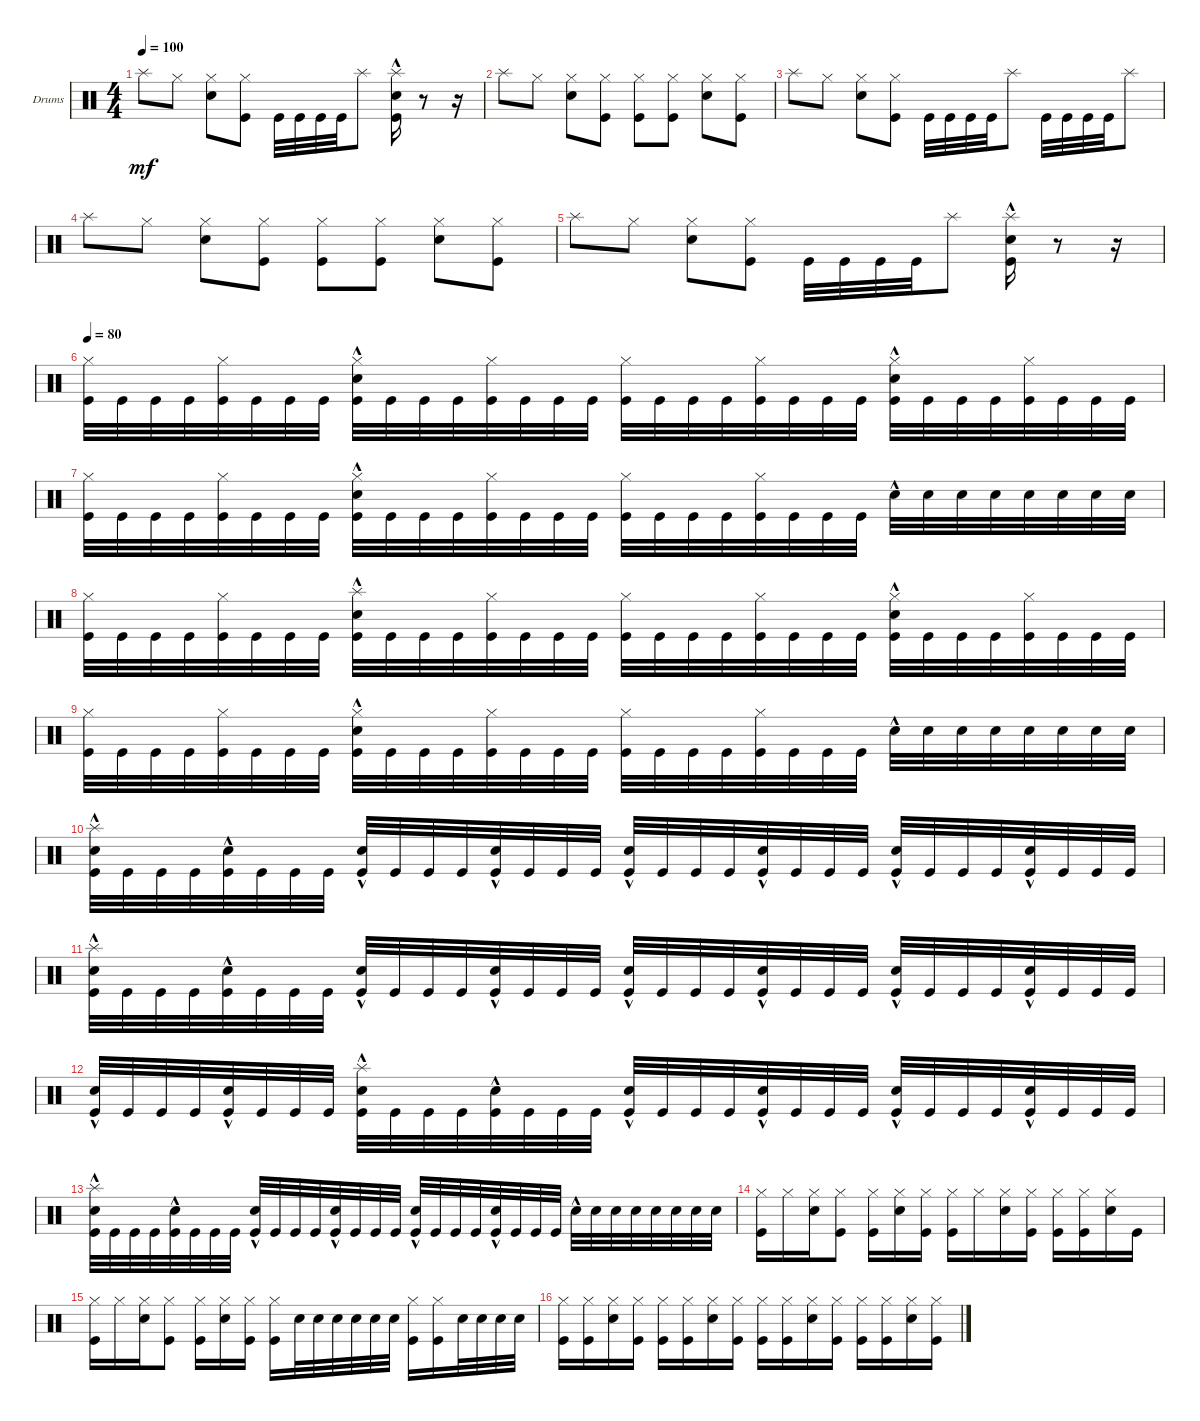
\defaultSystemsLayout 4
\bracketExtendMode groupsimilarinstruments
\firstSystemTrackNameOrientation horizontal
\otherSystemsTrackNameOrientation horizontal
\track ("Drumkit" "Drums") {instrument percussion}
\staff {score}
\articulation defaults
\ts (4 4)
\tempo 100
\clef neutral
\ks c "Splash (hit)".8{dy mf} "Hi-Hat (closed)".8
("Snare (hit) 2" "Hi-Hat (closed)").8 ("Kick (hit)" "Hi-Hat (closed)").8 "Kick (hit)".32 "Kick (hit)".32 "Kick (hit)".32 "Kick (hit)".32 "Splash (hit)".8 ("Splash (hit)"{hac} "Snare (hit) 2"{hac} "Kick (hit)"{hac}).16 r.8 r.16 |
"Splash (hit)".8 "Hi-Hat (closed)".8 ("Snare (hit) 2" "Hi-Hat (closed)").8 ("Kick (hit)" "Hi-Hat (closed)").8 ("Kick (hit)" "Hi-Hat (closed)").8 ("Kick (hit)" "Hi-Hat (closed)").8 ("Snare (hit) 2" "Hi-Hat (closed)").8 ("Kick (hit)" "Hi-Hat (closed)").8 |
"Splash (hit)".8 "Hi-Hat (closed)".8 ("Snare (hit) 2" "Hi-Hat (closed)").8 ("Kick (hit)" "Hi-Hat (closed)").8 "Kick (hit)".32 "Kick (hit)".32 "Kick (hit)".32 "Kick (hit)".32 "Splash (hit)".8 "Kick (hit)".32 "Kick (hit)".32 "Kick (hit)".32 "Kick (hit)".32 "Splash (hit)".8 |
"Splash (hit)".8 "Hi-Hat (closed)".8 ("Snare (hit) 2" "Hi-Hat (closed)").8 ("Kick (hit)" "Hi-Hat (closed)").8 ("Kick (hit)" "Hi-Hat (closed)").8 ("Kick (hit)" "Hi-Hat (closed)").8 ("Snare (hit) 2" "Hi-Hat (closed)").8 ("Kick (hit)" "Hi-Hat (closed)").8 |
"Splash (hit)".8 "Hi-Hat (closed)".8 ("Snare (hit) 2" "Hi-Hat (closed)").8 ("Kick (hit)" "Hi-Hat (closed)").8 "Kick (hit)".32 "Kick (hit)".32 "Kick (hit)".32 "Kick (hit)".32 "Splash (hit)".8 ("Splash (hit)"{hac} "Snare (hit) 2"{hac} "Kick (hit)"{hac}).16 r.8 r.16 |
\tempo 80
("Kick (hit)" "Hi-Hat (closed)").32 "Kick (hit)".32 "Kick (hit)".32 "Kick (hit)".32 ("Kick (hit)" "Hi-Hat (closed)").32 "Kick (hit)".32 "Kick (hit)".32 "Kick (hit)".32 ("Kick (hit)" "Snare (hit) 2"{hac} "Hi-Hat (closed)").32 "Kick (hit)".32 "Kick (hit)".32 "Kick (hit)".32 ("Kick (hit)" "Hi-Hat (closed)").32 "Kick (hit)".32 "Kick (hit)".32 "Kick (hit)".32 ("Kick (hit)" "Hi-Hat (closed)").32 "Kick (hit)".32 "Kick (hit)".32 "Kick (hit)".32 ("Kick (hit)" "Hi-Hat (closed)").32 "Kick (hit)".32 "Kick (hit)".32 "Kick (hit)".32 ("Kick (hit)" "Snare (hit) 2"{hac} "Hi-Hat (closed)").32 "Kick (hit)".32 "Kick (hit)".32 "Kick (hit)".32 ("Kick (hit)" "Hi-Hat (closed)").32 "Kick (hit)".32 "Kick (hit)".32 "Kick (hit)".32 |
("Kick (hit)" "Hi-Hat (closed)").32 "Kick (hit)".32 "Kick (hit)".32 "Kick (hit)".32 ("Kick (hit)" "Hi-Hat (closed)").32 "Kick (hit)".32 "Kick (hit)".32 "Kick (hit)".32 ("Kick (hit)" "Snare (hit) 2"{hac} "Hi-Hat (closed)").32 "Kick (hit)".32 "Kick (hit)".32 "Kick (hit)".32 ("Kick (hit)" "Hi-Hat (closed)").32 "Kick (hit)".32 "Kick (hit)".32 "Kick (hit)".32 ("Kick (hit)" "Hi-Hat (closed)").32 "Kick (hit)".32 "Kick (hit)".32 "Kick (hit)".32 ("Kick (hit)" "Hi-Hat (closed)").32 "Kick (hit)".32 "Kick (hit)".32 "Kick (hit)".32 "Snare (hit) 2"{hac}.32 "Snare (hit) 2".32 "Snare (hit) 2".32 "Snare (hit) 2".32 "Snare (hit) 2".32 "Snare (hit) 2".32 "Snare (hit) 2".32 "Snare (hit) 2".32 |
("Kick (hit)" "Hi-Hat (closed)").32 "Kick (hit)".32 "Kick (hit)".32 "Kick (hit)".32 ("Kick (hit)" "Hi-Hat (closed)").32 "Kick (hit)".32 "Kick (hit)".32 "Kick (hit)".32 ("Kick (hit)" "Snare (hit) 2"{hac} "Splash (hit)").32 "Kick (hit)".32 "Kick (hit)".32 "Kick (hit)".32 ("Kick (hit)" "Hi-Hat (closed)").32 "Kick (hit)".32 "Kick (hit)".32 "Kick (hit)".32 ("Kick (hit)" "Hi-Hat (closed)").32 "Kick (hit)".32 "Kick (hit)".32 "Kick (hit)".32 ("Kick (hit)" "Hi-Hat (closed)").32 "Kick (hit)".32 "Kick (hit)".32 "Kick (hit)".32 ("Kick (hit)" "Snare (hit) 2"{hac} "Hi-Hat (closed)").32 "Kick (hit)".32 "Kick (hit)".32 "Kick (hit)".32 ("Kick (hit)" "Hi-Hat (closed)").32 "Kick (hit)".32 "Kick (hit)".32 "Kick (hit)".32 |
("Kick (hit)" "Hi-Hat (closed)").32 "Kick (hit)".32 "Kick (hit)".32 "Kick (hit)".32 ("Kick (hit)" "Hi-Hat (closed)").32 "Kick (hit)".32 "Kick (hit)".32 "Kick (hit)".32 ("Kick (hit)" "Snare (hit) 2"{hac} "Hi-Hat (closed)").32 "Kick (hit)".32 "Kick (hit)".32 "Kick (hit)".32 ("Kick (hit)" "Hi-Hat (closed)").32 "Kick (hit)".32 "Kick (hit)".32 "Kick (hit)".32 ("Kick (hit)" "Hi-Hat (closed)").32 "Kick (hit)".32 "Kick (hit)".32 "Kick (hit)".32 ("Kick (hit)" "Hi-Hat (closed)").32 "Kick (hit)".32 "Kick (hit)".32 "Kick (hit)".32 "Snare (hit) 2"{hac}.32 "Snare (hit) 2".32 "Snare (hit) 2".32 "Snare (hit) 2".32 "Snare (hit) 2".32 "Snare (hit) 2".32 "Snare (hit) 2".32 "Snare (hit) 2".32 |
("Kick (hit)" "Snare (hit) 2"{hac} "Splash (hit)").32 "Kick (hit)".32 "Kick (hit)".32 "Kick (hit)".32 ("Kick (hit)" "Snare (hit) 2"{hac}).32 "Kick (hit)".32 "Kick (hit)".32 "Kick (hit)".32 ("Kick (hit)" "Snare (hit) 2"{hac}).32 "Kick (hit)".32 "Kick (hit)".32 "Kick (hit)".32 ("Kick (hit)" "Snare (hit) 2"{hac}).32 "Kick (hit)".32 "Kick (hit)".32 "Kick (hit)".32 ("Kick (hit)" "Snare (hit) 2"{hac}).32 "Kick (hit)".32 "Kick (hit)".32 "Kick (hit)".32 ("Kick (hit)" "Snare (hit) 2"{hac}).32 "Kick (hit)".32 "Kick (hit)".32 "Kick (hit)".32 ("Kick (hit)" "Snare (hit) 2"{hac}).32 "Kick (hit)".32 "Kick (hit)".32 "Kick (hit)".32 ("Kick (hit)" "Snare (hit) 2"{hac}).32 "Kick (hit)".32 "Kick (hit)".32 "Kick (hit)".32 |
("Kick (hit)" "Snare (hit) 2"{hac} "Splash (hit)").32 "Kick (hit)".32 "Kick (hit)".32 "Kick (hit)".32 ("Kick (hit)" "Snare (hit) 2"{hac}).32 "Kick (hit)".32 "Kick (hit)".32 "Kick (hit)".32 ("Kick (hit)" "Snare (hit) 2"{hac}).32 "Kick (hit)".32 "Kick (hit)".32 "Kick (hit)".32 ("Kick (hit)" "Snare (hit) 2"{hac}).32 "Kick (hit)".32 "Kick (hit)".32 "Kick (hit)".32 ("Kick (hit)" "Snare (hit) 2"{hac}).32 "Kick (hit)".32 "Kick (hit)".32 "Kick (hit)".32 ("Kick (hit)" "Snare (hit) 2"{hac}).32 "Kick (hit)".32 "Kick (hit)".32 "Kick (hit)".32 ("Kick (hit)" "Snare (hit) 2"{hac}).32 "Kick (hit)".32 "Kick (hit)".32 "Kick (hit)".32 ("Kick (hit)" "Snare (hit) 2"{hac}).32 "Kick (hit)".32 "Kick (hit)".32 "Kick (hit)".32 |
("Kick (hit)" "Snare (hit) 2"{hac}).32 "Kick (hit)".32 "Kick (hit)".32 "Kick (hit)".32 ("Kick (hit)" "Snare (hit) 2"{hac}).32 "Kick (hit)".32 "Kick (hit)".32 "Kick (hit)".32 ("Kick (hit)" "Snare (hit) 2"{hac} "Splash (hit)").32 "Kick (hit)".32 "Kick (hit)".32 "Kick (hit)".32 ("Kick (hit)" "Snare (hit) 2"{hac}).32 "Kick (hit)".32 "Kick (hit)".32 "Kick (hit)".32 ("Kick (hit)" "Snare (hit) 2"{hac}).32 "Kick (hit)".32 "Kick (hit)".32 "Kick (hit)".32 ("Kick (hit)" "Snare (hit) 2"{hac}).32 "Kick (hit)".32 "Kick (hit)".32 "Kick (hit)".32 ("Kick (hit)" "Snare (hit) 2"{hac}).32 "Kick (hit)".32 "Kick (hit)".32 "Kick (hit)".32 ("Kick (hit)" "Snare (hit) 2"{hac}).32 "Kick (hit)".32 "Kick (hit)".32 "Kick (hit)".32 |
("Kick (hit)" "Snare (hit) 2"{hac} "Splash (hit)").32 "Kick (hit)".32 "Kick (hit)".32 "Kick (hit)".32 ("Kick (hit)" "Snare (hit) 2"{hac}).32 "Kick (hit)".32 "Kick (hit)".32 "Kick (hit)".32 ("Kick (hit)" "Snare (hit) 2"{hac}).32 "Kick (hit)".32 "Kick (hit)".32 "Kick (hit)".32 ("Kick (hit)" "Snare (hit) 2"{hac}).32 "Kick (hit)".32 "Kick (hit)".32 "Kick (hit)".32 ("Kick (hit)" "Snare (hit) 2"{hac}).32 "Kick (hit)".32 "Kick (hit)".32 "Kick (hit)".32 ("Kick (hit)" "Snare (hit) 2"{hac}).32 "Kick (hit)".32 "Kick (hit)".32 "Kick (hit)".32 "Snare (hit) 2"{hac}.32 "Snare (hit) 2".32 "Snare (hit) 2".32 "Snare (hit) 2".32 "Snare (hit) 2".32 "Snare (hit) 2".32 "Snare (hit) 2".32 "Snare (hit) 2".32 |
("Hi-Hat (closed)" "Kick (hit)").16 "Hi-Hat (closed)".16 ("Snare (hit) 2" "Hi-Hat (closed)").16 ("Kick (hit)" "Hi-Hat (closed)").8 ("Kick (hit)" "Hi-Hat (closed)").16 ("Snare (hit) 2" "Hi-Hat (closed)").16 ("Kick (hit)" "Hi-Hat (closed)").16 ("Hi-Hat (closed)" "Kick (hit)").16 "Hi-Hat (closed)".16 ("Snare (hit) 2" "Hi-Hat (closed)").16 ("Kick (hit)" "Hi-Hat (closed)").16 ("Kick (hit)" "Hi-Hat (closed)").16 ("Hi-Hat (closed)" "Kick (hit)").16 ("Hi-Hat (closed)" "Snare (hit) 2").16 "Kick (hit)".16 |
("Hi-Hat (closed)" "Kick (hit)").16 "Hi-Hat (closed)".16 ("Snare (hit) 2" "Hi-Hat (closed)").16 ("Kick (hit)" "Hi-Hat (closed)").8 ("Kick (hit)" "Hi-Hat (closed)").16 ("Snare (hit) 2" "Hi-Hat (closed)").16 ("Kick (hit)" "Hi-Hat (closed)").16 ("Hi-Hat (closed)" "Kick (hit)").16 "Snare (hit) 2".32 "Snare (hit) 2".32 "Snare (hit) 2".32 "Snare (hit) 2".32 "Snare (hit) 2".32 "Snare (hit) 2".32 ("Kick (hit)" "Hi-Hat (closed)").16 ("Kick (hit)" "Hi-Hat (closed)").16 "Snare (hit) 2".32 "Snare (hit) 2".32 "Snare (hit) 2".32 "Snare (hit) 2".32 |
("Kick (hit)" "Hi-Hat (closed)").16 ("Kick (hit)" "Hi-Hat (closed)").16 ("Snare (hit) 2" "Hi-Hat (closed)").16 ("Kick (hit)" "Hi-Hat (closed)").16 ("Kick (hit)" "Hi-Hat (closed)").16 ("Kick (hit)" "Hi-Hat (closed)").16 ("Snare (hit) 2" "Hi-Hat (closed)").16 ("Kick (hit)" "Hi-Hat (closed)").16 ("Kick (hit)" "Hi-Hat (closed)").16 ("Kick (hit)" "Hi-Hat (closed)").16 ("Snare (hit) 2" "Hi-Hat (closed)").16 ("Kick (hit)" "Hi-Hat (closed)").16 ("Kick (hit)" "Hi-Hat (closed)").16 ("Kick (hit)" "Hi-Hat (closed)").16 ("Snare (hit) 2" "Hi-Hat (closed)").16 ("Kick (hit)" "Hi-Hat (closed)").16
